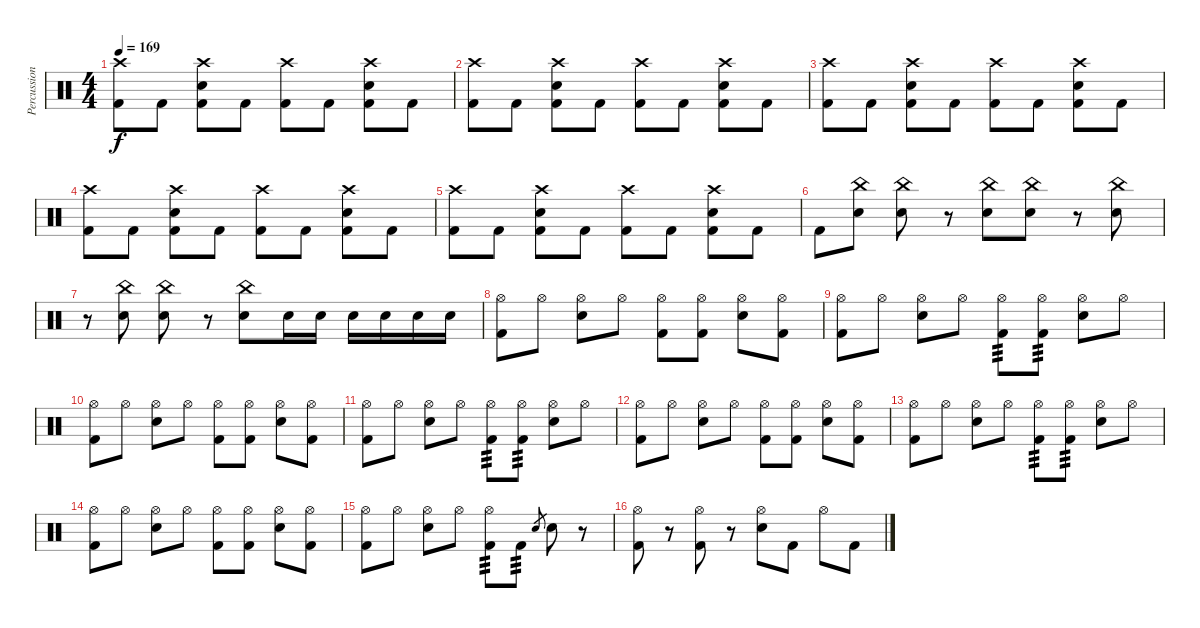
\track ("Percussion" "Percussion") {instrument percussion}
\staff {score}
\articulation defaults
\ts (4 4)
\tempo 169
\clef neutral
\ks c
("Crash high (hit)" "Kick (hit) 2").8{dy f} "Kick (hit) 2".8 ("Crash high (hit)" "Electric Snare (hit)" "Kick (hit) 2").8 "Kick (hit) 2".8 ("Crash high (hit)" "Kick (hit) 2").8 "Kick (hit) 2".8 ("Crash high (hit)" "Electric Snare (hit)" "Kick (hit) 2").8 "Kick (hit) 2".8 |
("Crash high (hit)" "Kick (hit) 2").8 "Kick (hit) 2".8 ("Crash high (hit)" "Electric Snare (hit)" "Kick (hit) 2").8 "Kick (hit) 2".8 ("Crash high (hit)" "Kick (hit) 2").8 "Kick (hit) 2".8 ("Crash high (hit)" "Electric Snare (hit)" "Kick (hit) 2").8 "Kick (hit) 2".8 |
("Crash high (hit)" "Kick (hit) 2").8 "Kick (hit) 2".8 ("Crash high (hit)" "Electric Snare (hit)" "Kick (hit) 2").8 "Kick (hit) 2".8 ("Crash high (hit)" "Kick (hit) 2").8 "Kick (hit) 2".8 ("Crash high (hit)" "Electric Snare (hit)" "Kick (hit) 2").8 "Kick (hit) 2".8 |
("Crash high (hit)" "Kick (hit) 2").8 "Kick (hit) 2".8 ("Crash high (hit)" "Electric Snare (hit)" "Kick (hit) 2").8 "Kick (hit) 2".8 ("Crash high (hit)" "Kick (hit) 2").8 "Kick (hit) 2".8 ("Crash high (hit)" "Electric Snare (hit)" "Kick (hit) 2").8 "Kick (hit) 2".8 |
("Crash high (hit)" "Kick (hit) 2").8 "Kick (hit) 2".8 ("Crash high (hit)" "Electric Snare (hit)" "Kick (hit) 2").8 "Kick (hit) 2".8 ("Crash high (hit)" "Kick (hit) 2").8 "Kick (hit) 2".8 ("Crash high (hit)" "Electric Snare (hit)" "Kick (hit) 2").8 "Kick (hit) 2".8 |
"Kick (hit) 2".8 ("China (hit)" "Electric Snare (hit)").8 ("China (hit)" "Electric Snare (hit)").8 r.8 ("China (hit)" "Electric Snare (hit)").8 ("China (hit)" "Electric Snare (hit)").8 r.8 ("China (hit)" "Electric Snare (hit)").8 |
r.8 ("China (hit)" "Electric Snare (hit)").8 ("China (hit)" "Electric Snare (hit)").8 r.8 ("China (hit)" "Electric Snare (hit)").8 "Electric Snare (hit)".16 "Electric Snare (hit)".16 "Electric Snare (hit)".16 "Electric Snare (hit)".16 "Electric Snare (hit)".16 "Electric Snare (hit)".16 |
("Hi-Hat (open)" "Kick (hit) 2").8 "Hi-Hat (open)".8 ("Hi-Hat (open)" "Electric Snare (hit)").8 "Hi-Hat (open)".8 ("Hi-Hat (open)" "Kick (hit) 2").8 ("Hi-Hat (open)" "Kick (hit) 2").8 ("Hi-Hat (open)" "Electric Snare (hit)").8 ("Hi-Hat (open)" "Kick (hit) 2").8 |
("Hi-Hat (open)" "Kick (hit) 2").8 "Hi-Hat (open)".8 ("Hi-Hat (open)" "Electric Snare (hit)").8 "Hi-Hat (open)".8 ("Hi-Hat (open)" "Kick (hit) 2").8{tp 3} ("Hi-Hat (open)" "Kick (hit) 2").8{tp 3} ("Hi-Hat (open)" "Electric Snare (hit)").8 "Hi-Hat (open)".8 |
("Hi-Hat (open)" "Kick (hit) 2").8 "Hi-Hat (open)".8 ("Hi-Hat (open)" "Electric Snare (hit)").8 "Hi-Hat (open)".8 ("Hi-Hat (open)" "Kick (hit) 2").8 ("Hi-Hat (open)" "Kick (hit) 2").8 ("Hi-Hat (open)" "Electric Snare (hit)").8 ("Hi-Hat (open)" "Kick (hit) 2").8 |
("Hi-Hat (open)" "Kick (hit) 2").8 "Hi-Hat (open)".8 ("Hi-Hat (open)" "Electric Snare (hit)").8 "Hi-Hat (open)".8 ("Hi-Hat (open)" "Kick (hit) 2").8{tp 3} ("Hi-Hat (open)" "Kick (hit) 2").8{tp 3} ("Hi-Hat (open)" "Electric Snare (hit)").8 "Hi-Hat (open)".8 |
("Hi-Hat (open)" "Kick (hit) 2").8 "Hi-Hat (open)".8 ("Hi-Hat (open)" "Electric Snare (hit)").8 "Hi-Hat (open)".8 ("Hi-Hat (open)" "Kick (hit) 2").8 ("Hi-Hat (open)" "Kick (hit) 2").8 ("Hi-Hat (open)" "Electric Snare (hit)").8 ("Hi-Hat (open)" "Kick (hit) 2").8 |
("Hi-Hat (open)" "Kick (hit) 2").8 "Hi-Hat (open)".8 ("Hi-Hat (open)" "Electric Snare (hit)").8 "Hi-Hat (open)".8 ("Hi-Hat (open)" "Kick (hit) 2").8{tp 3} ("Hi-Hat (open)" "Kick (hit) 2").8{tp 3} ("Hi-Hat (open)" "Electric Snare (hit)").8 "Hi-Hat (open)".8 |
("Hi-Hat (open)" "Kick (hit) 2").8 "Hi-Hat (open)".8 ("Hi-Hat (open)" "Electric Snare (hit)").8 "Hi-Hat (open)".8 ("Hi-Hat (open)" "Kick (hit) 2").8 ("Hi-Hat (open)" "Kick (hit) 2").8 ("Hi-Hat (open)" "Electric Snare (hit)").8 ("Hi-Hat (open)" "Kick (hit) 2").8 |
("Hi-Hat (open)" "Kick (hit) 2").8 "Hi-Hat (open)".8 ("Hi-Hat (open)" "Electric Snare (hit)").8 "Hi-Hat (open)".8 ("Hi-Hat (open)" "Kick (hit) 2").8{tp 3} "Kick (hit) 2".8{tp 3} "Electric Snare (hit)".8{gr} "Electric Snare (hit)".8 r.8 |
("Hi-Hat (open)" "Kick (hit) 2").8 r.8 ("Hi-Hat (open)" "Kick (hit) 2").8 r.8 ("Hi-Hat (open)" "Electric Snare (hit)").8 "Kick (hit) 2".8 "Hi-Hat (open)".8 "Kick (hit) 2".8
